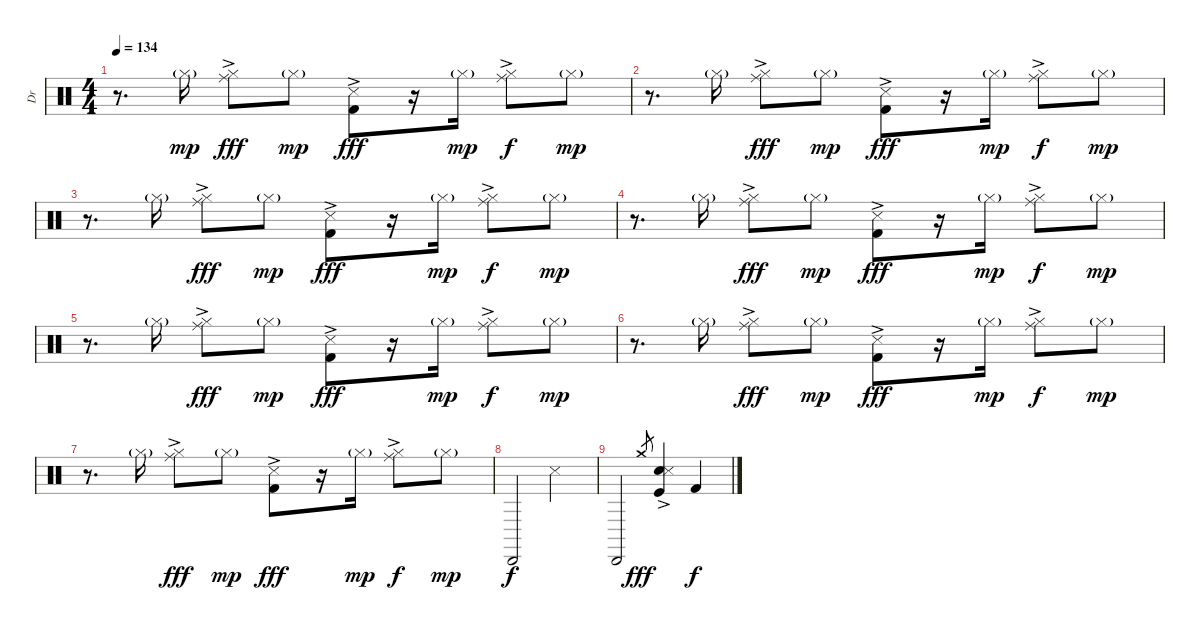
\track ("Dr" "Dr") {instrument percussion}
\staff {score}
\articulation defaults
\ts (4 4)
\tempo 134
\clef neutral
\ks c
r.8{d dy mp} "Hi-Hat (closed)"{g}.16 ("Ride (middle)" "Hi-Hat (closed)"{ac}).8{dy fff} "Hi-Hat (closed)"{g}.8{dy mp} ("Snare (side stick) 3"{ac} "Kick (hit) 2").8{dy fff} r.16 "Hi-Hat (closed)"{g}.16{dy mp} ("Ride (middle)" "Hi-Hat (closed)"{ac}).8{dy f} "Hi-Hat (closed)"{g}.8{dy mp} |
r.8{d} "Hi-Hat (closed)"{g}.16 ("Ride (middle)" "Hi-Hat (closed)"{ac}).8{dy fff} "Hi-Hat (closed)"{g}.8{dy mp} ("Snare (side stick) 3"{ac} "Kick (hit) 2").8{dy fff} r.16 "Hi-Hat (closed)"{g}.16{dy mp} ("Ride (middle)" "Hi-Hat (closed)"{ac}).8{dy f} "Hi-Hat (closed)"{g}.8{dy mp} |
r.8{d} "Hi-Hat (closed)"{g}.16 ("Ride (middle)" "Hi-Hat (closed)"{ac}).8{dy fff} "Hi-Hat (closed)"{g}.8{dy mp} ("Snare (side stick) 3"{ac} "Kick (hit) 2").8{dy fff} r.16 "Hi-Hat (closed)"{g}.16{dy mp} ("Ride (middle)" "Hi-Hat (closed)"{ac}).8{dy f} "Hi-Hat (closed)"{g}.8{dy mp} |
r.8{d} "Hi-Hat (closed)"{g}.16 ("Ride (middle)" "Hi-Hat (closed)"{ac}).8{dy fff} "Hi-Hat (closed)"{g}.8{dy mp} ("Snare (side stick) 3"{ac} "Kick (hit) 2").8{dy fff} r.16 "Hi-Hat (closed)"{g}.16{dy mp} ("Ride (middle)" "Hi-Hat (closed)"{ac}).8{dy f} "Hi-Hat (closed)"{g}.8{dy mp} |
r.8{d} "Hi-Hat (closed)"{g}.16 ("Ride (middle)" "Hi-Hat (closed)"{ac}).8{dy fff} "Hi-Hat (closed)"{g}.8{dy mp} ("Snare (side stick) 3"{ac} "Kick (hit) 2").8{dy fff} r.16 "Hi-Hat (closed)"{g}.16{dy mp} ("Ride (middle)" "Hi-Hat (closed)"{ac}).8{dy f} "Hi-Hat (closed)"{g}.8{dy mp} |
r.8{d} "Hi-Hat (closed)"{g}.16 ("Ride (middle)" "Hi-Hat (closed)"{ac}).8{dy fff} "Hi-Hat (closed)"{g}.8{dy mp} ("Snare (side stick) 3"{ac} "Kick (hit) 2").8{dy fff} r.16 "Hi-Hat (closed)"{g}.16{dy mp} ("Ride (middle)" "Hi-Hat (closed)"{ac}).8{dy f} "Hi-Hat (closed)"{g}.8{dy mp} |
r.8{d} "Hi-Hat (closed)"{g}.16 ("Ride (middle)" "Hi-Hat (closed)"{ac}).8{dy fff} "Hi-Hat (closed)"{g}.8{dy mp} ("Snare (side stick) 3"{ac} "Kick (hit) 2").8{dy fff} r.16 "Hi-Hat (closed)"{g}.16{dy mp} ("Ride (middle)" "Hi-Hat (closed)"{ac}).8{dy f} "Hi-Hat (closed)"{g}.8{dy mp} |
"Cabasa (hit)".2{dy f} "Snare (side stick) 3".2 |
"Cabasa (hit)".2 "Crash medium (hit)".8{gr dy fff} ("Electric Snare (hit)"{ac} "Snare (side stick) 3"{ac} "Kick (hit)").4 "Kick (hit) 2".4{dy f}
